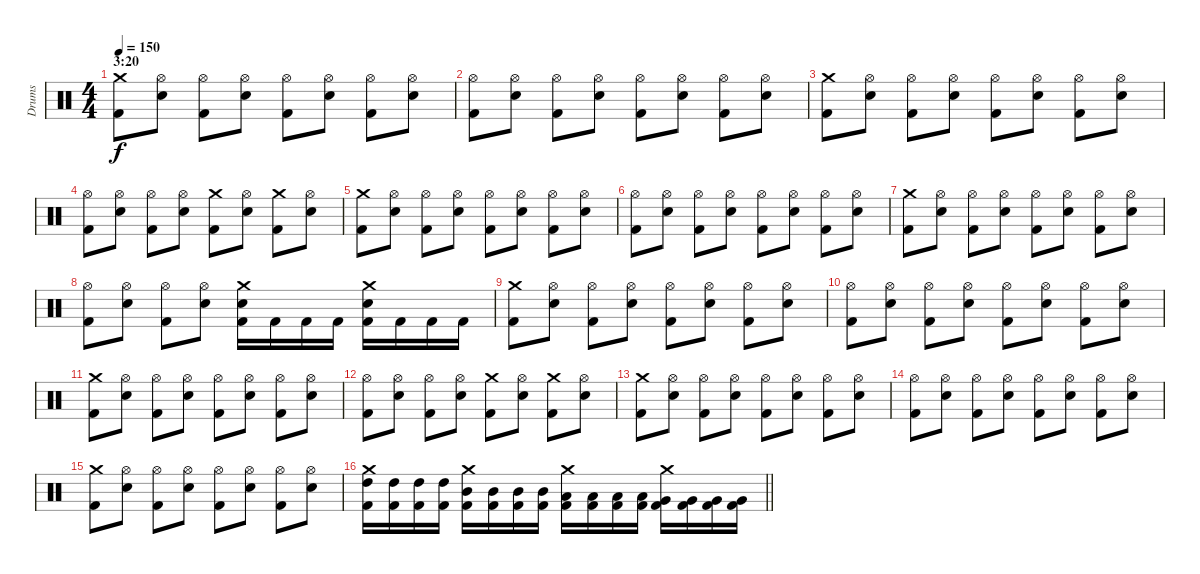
\track ("Drums" "Drums") {instrument percussion}
\staff {score}
\articulation defaults
\ts (4 4)
\section ("" "3:20")
\tempo 150
\clef neutral
\ks c
("Crash medium (hit)" "Kick (hit) 2").8{dy f} ("Hi-Hat (open)" "Electric Snare (hit)").8 ("Hi-Hat (open)" "Kick (hit) 2").8 ("Hi-Hat (open)" "Electric Snare (hit)").8 ("Hi-Hat (open)" "Kick (hit) 2").8 ("Hi-Hat (open)" "Electric Snare (hit)").8 ("Hi-Hat (open)" "Kick (hit) 2").8 ("Hi-Hat (open)" "Electric Snare (hit)").8 |
("Hi-Hat (open)" "Kick (hit) 2").8 ("Hi-Hat (open)" "Electric Snare (hit)").8 ("Hi-Hat (open)" "Kick (hit) 2").8 ("Hi-Hat (open)" "Electric Snare (hit)").8 ("Hi-Hat (open)" "Kick (hit) 2").8 ("Hi-Hat (open)" "Electric Snare (hit)").8 ("Hi-Hat (open)" "Kick (hit) 2").8 ("Hi-Hat (open)" "Electric Snare (hit)").8 |
("Crash medium (hit)" "Kick (hit) 2").8 ("Hi-Hat (open)" "Electric Snare (hit)").8 ("Hi-Hat (open)" "Kick (hit) 2").8 ("Hi-Hat (open)" "Electric Snare (hit)").8 ("Hi-Hat (open)" "Kick (hit) 2").8 ("Hi-Hat (open)" "Electric Snare (hit)").8 ("Hi-Hat (open)" "Kick (hit) 2").8 ("Hi-Hat (open)" "Electric Snare (hit)").8 |
("Hi-Hat (open)" "Kick (hit) 2").8 ("Hi-Hat (open)" "Electric Snare (hit)").8 ("Hi-Hat (open)" "Kick (hit) 2").8 ("Hi-Hat (open)" "Electric Snare (hit)").8 ("Crash medium (hit)" "Kick (hit) 2").8 ("Hi-Hat (open)" "Electric Snare (hit)").8 ("Crash medium (hit)" "Kick (hit) 2").8 ("Hi-Hat (open)" "Electric Snare (hit)").8 |
("Crash medium (hit)" "Kick (hit) 2").8 ("Hi-Hat (open)" "Electric Snare (hit)").8 ("Hi-Hat (open)" "Kick (hit) 2").8 ("Hi-Hat (open)" "Electric Snare (hit)").8 ("Hi-Hat (open)" "Kick (hit) 2").8 ("Hi-Hat (open)" "Electric Snare (hit)").8 ("Hi-Hat (open)" "Kick (hit) 2").8 ("Hi-Hat (open)" "Electric Snare (hit)").8 |
("Hi-Hat (open)" "Kick (hit) 2").8 ("Hi-Hat (open)" "Electric Snare (hit)").8 ("Hi-Hat (open)" "Kick (hit) 2").8 ("Hi-Hat (open)" "Electric Snare (hit)").8 ("Hi-Hat (open)" "Kick (hit) 2").8 ("Hi-Hat (open)" "Electric Snare (hit)").8 ("Hi-Hat (open)" "Kick (hit) 2").8 ("Hi-Hat (open)" "Electric Snare (hit)").8 |
("Crash medium (hit)" "Kick (hit) 2").8 ("Hi-Hat (open)" "Electric Snare (hit)").8 ("Hi-Hat (open)" "Kick (hit) 2").8 ("Hi-Hat (open)" "Electric Snare (hit)").8 ("Hi-Hat (open)" "Kick (hit) 2").8 ("Hi-Hat (open)" "Electric Snare (hit)").8 ("Hi-Hat (open)" "Kick (hit) 2").8 ("Hi-Hat (open)" "Electric Snare (hit)").8 |
("Hi-Hat (open)" "Kick (hit) 2").8 ("Hi-Hat (open)" "Electric Snare (hit)").8 ("Hi-Hat (open)" "Kick (hit) 2").8 ("Hi-Hat (open)" "Electric Snare (hit)").8 ("Crash medium (hit)" "Electric Snare (hit)" "Kick (hit) 2").16 "Kick (hit) 2".16 "Kick (hit) 2".16 "Kick (hit) 2".16 ("Crash medium (hit)" "Electric Snare (hit)" "Kick (hit) 2").16 "Kick (hit) 2".16 "Kick (hit) 2".16 "Kick (hit) 2".16 |
("Crash medium (hit)" "Kick (hit) 2").8 ("Hi-Hat (open)" "Electric Snare (hit)").8 ("Hi-Hat (open)" "Kick (hit) 2").8 ("Hi-Hat (open)" "Electric Snare (hit)").8 ("Hi-Hat (open)" "Kick (hit) 2").8 ("Hi-Hat (open)" "Electric Snare (hit)").8 ("Hi-Hat (open)" "Kick (hit) 2").8 ("Hi-Hat (open)" "Electric Snare (hit)").8 |
("Hi-Hat (open)" "Kick (hit) 2").8 ("Hi-Hat (open)" "Electric Snare (hit)").8 ("Hi-Hat (open)" "Kick (hit) 2").8 ("Hi-Hat (open)" "Electric Snare (hit)").8 ("Hi-Hat (open)" "Kick (hit) 2").8 ("Hi-Hat (open)" "Electric Snare (hit)").8 ("Hi-Hat (open)" "Kick (hit) 2").8 ("Hi-Hat (open)" "Electric Snare (hit)").8 |
("Crash medium (hit)" "Kick (hit) 2").8 ("Hi-Hat (open)" "Electric Snare (hit)").8 ("Hi-Hat (open)" "Kick (hit) 2").8 ("Hi-Hat (open)" "Electric Snare (hit)").8 ("Hi-Hat (open)" "Kick (hit) 2").8 ("Hi-Hat (open)" "Electric Snare (hit)").8 ("Hi-Hat (open)" "Kick (hit) 2").8 ("Hi-Hat (open)" "Electric Snare (hit)").8 |
("Hi-Hat (open)" "Kick (hit) 2").8 ("Hi-Hat (open)" "Electric Snare (hit)").8 ("Hi-Hat (open)" "Kick (hit) 2").8 ("Hi-Hat (open)" "Electric Snare (hit)").8 ("Crash medium (hit)" "Kick (hit) 2").8 ("Hi-Hat (open)" "Electric Snare (hit)").8 ("Crash medium (hit)" "Kick (hit) 2").8 ("Hi-Hat (open)" "Electric Snare (hit)").8 |
("Crash medium (hit)" "Kick (hit) 2").8 ("Hi-Hat (open)" "Electric Snare (hit)").8 ("Hi-Hat (open)" "Kick (hit) 2").8 ("Hi-Hat (open)" "Electric Snare (hit)").8 ("Hi-Hat (open)" "Kick (hit) 2").8 ("Hi-Hat (open)" "Electric Snare (hit)").8 ("Hi-Hat (open)" "Kick (hit) 2").8 ("Hi-Hat (open)" "Electric Snare (hit)").8 |
("Hi-Hat (open)" "Kick (hit) 2").8 ("Hi-Hat (open)" "Electric Snare (hit)").8 ("Hi-Hat (open)" "Kick (hit) 2").8 ("Hi-Hat (open)" "Electric Snare (hit)").8 ("Hi-Hat (open)" "Kick (hit) 2").8 ("Hi-Hat (open)" "Electric Snare (hit)").8 ("Hi-Hat (open)" "Kick (hit) 2").8 ("Hi-Hat (open)" "Electric Snare (hit)").8 |
("Crash medium (hit)" "Kick (hit) 2").8 ("Hi-Hat (open)" "Electric Snare (hit)").8 ("Hi-Hat (open)" "Kick (hit) 2").8 ("Hi-Hat (open)" "Electric Snare (hit)").8 ("Hi-Hat (open)" "Kick (hit) 2").8 ("Hi-Hat (open)" "Electric Snare (hit)").8 ("Hi-Hat (open)" "Kick (hit) 2").8 ("Hi-Hat (open)" "Electric Snare (hit)").8 |
\barLineRight lightlight
("Crash medium (hit)" "High Tom (hit)" "Kick (hit) 2").16 ("High Tom (hit)" "Kick (hit) 2").16 ("High Tom (hit)" "Kick (hit) 2").16 ("High Tom (hit)" "Kick (hit) 2").16 ("Crash medium (hit)" "Mid Tom (hit)" "Kick (hit) 2").16 ("Mid Tom (hit)" "Kick (hit) 2").16 ("Mid Tom (hit)" "Kick (hit) 2").16 ("Mid Tom (hit)" "Kick (hit) 2").16 ("Crash medium (hit)" "Low Tom (hit)" "Kick (hit) 2").16 ("Low Tom (hit)" "Kick (hit) 2").16 ("Low Tom (hit)" "Kick (hit) 2").16 ("Low Tom (hit)" "Kick (hit) 2").16 ("Crash medium (hit)" "Very Low Tom (hit)" "Kick (hit) 2").16 ("Very Low Tom (hit)" "Kick (hit) 2").16 ("Very Low Tom (hit)" "Kick (hit) 2").16 ("Very Low Tom (hit)" "Kick (hit) 2").16
